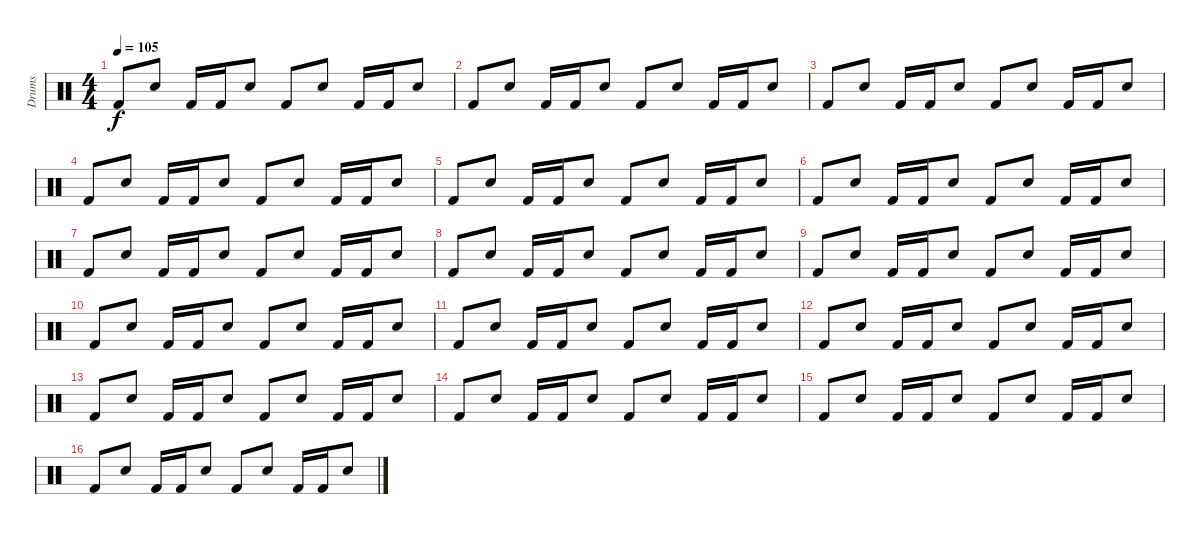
\track ("Drums" "Drums") {instrument percussion}
\staff {score}
\articulation defaults
\ts (4 4)
\tempo 105
\clef neutral
\ks c "Kick (hit) 2".8{dy f} "Snare (hit) 2".8 "Kick (hit) 2".16 "Kick (hit) 2".16 "Snare (hit) 2".8 "Kick (hit) 2".8 "Snare (hit) 2".8 "Kick (hit) 2".16 "Kick (hit) 2".16 "Snare (hit) 2".8
|
"Kick (hit) 2".8 "Snare (hit) 2".8 "Kick (hit) 2".16 "Kick (hit) 2".16 "Snare (hit) 2".8 "Kick (hit) 2".8 "Snare (hit) 2".8 "Kick (hit) 2".16 "Kick (hit) 2".16 "Snare (hit) 2".8 |
"Kick (hit) 2".8 "Snare (hit) 2".8 "Kick (hit) 2".16 "Kick (hit) 2".16 "Snare (hit) 2".8 "Kick (hit) 2".8 "Snare (hit) 2".8 "Kick (hit) 2".16 "Kick (hit) 2".16 "Snare (hit) 2".8 |
"Kick (hit) 2".8 "Snare (hit) 2".8 "Kick (hit) 2".16 "Kick (hit) 2".16 "Snare (hit) 2".8 "Kick (hit) 2".8 "Snare (hit) 2".8 "Kick (hit) 2".16 "Kick (hit) 2".16 "Snare (hit) 2".8 |
"Kick (hit) 2".8 "Snare (hit) 2".8 "Kick (hit) 2".16 "Kick (hit) 2".16 "Snare (hit) 2".8 "Kick (hit) 2".8 "Snare (hit) 2".8 "Kick (hit) 2".16 "Kick (hit) 2".16 "Snare (hit) 2".8 |
"Kick (hit) 2".8 "Snare (hit) 2".8 "Kick (hit) 2".16 "Kick (hit) 2".16 "Snare (hit) 2".8 "Kick (hit) 2".8 "Snare (hit) 2".8 "Kick (hit) 2".16 "Kick (hit) 2".16 "Snare (hit) 2".8 |
"Kick (hit) 2".8 "Snare (hit) 2".8 "Kick (hit) 2".16 "Kick (hit) 2".16 "Snare (hit) 2".8 "Kick (hit) 2".8 "Snare (hit) 2".8 "Kick (hit) 2".16 "Kick (hit) 2".16 "Snare (hit) 2".8 |
"Kick (hit) 2".8 "Snare (hit) 2".8 "Kick (hit) 2".16 "Kick (hit) 2".16 "Snare (hit) 2".8 "Kick (hit) 2".8 "Snare (hit) 2".8 "Kick (hit) 2".16 "Kick (hit) 2".16 "Snare (hit) 2".8 |
"Kick (hit) 2".8 "Snare (hit) 2".8 "Kick (hit) 2".16 "Kick (hit) 2".16 "Snare (hit) 2".8 "Kick (hit) 2".8 "Snare (hit) 2".8 "Kick (hit) 2".16 "Kick (hit) 2".16 "Snare (hit) 2".8 |
"Kick (hit) 2".8 "Snare (hit) 2".8 "Kick (hit) 2".16 "Kick (hit) 2".16 "Snare (hit) 2".8 "Kick (hit) 2".8 "Snare (hit) 2".8 "Kick (hit) 2".16 "Kick (hit) 2".16 "Snare (hit) 2".8 |
"Kick (hit) 2".8 "Snare (hit) 2".8 "Kick (hit) 2".16 "Kick (hit) 2".16 "Snare (hit) 2".8 "Kick (hit) 2".8 "Snare (hit) 2".8 "Kick (hit) 2".16 "Kick (hit) 2".16 "Snare (hit) 2".8 |
"Kick (hit) 2".8 "Snare (hit) 2".8 "Kick (hit) 2".16 "Kick (hit) 2".16 "Snare (hit) 2".8 "Kick (hit) 2".8 "Snare (hit) 2".8 "Kick (hit) 2".16 "Kick (hit) 2".16 "Snare (hit) 2".8 |
"Kick (hit) 2".8 "Snare (hit) 2".8 "Kick (hit) 2".16 "Kick (hit) 2".16 "Snare (hit) 2".8 "Kick (hit) 2".8 "Snare (hit) 2".8 "Kick (hit) 2".16 "Kick (hit) 2".16 "Snare (hit) 2".8 |
"Kick (hit) 2".8 "Snare (hit) 2".8 "Kick (hit) 2".16 "Kick (hit) 2".16 "Snare (hit) 2".8 "Kick (hit) 2".8 "Snare (hit) 2".8 "Kick (hit) 2".16 "Kick (hit) 2".16 "Snare (hit) 2".8 |
"Kick (hit) 2".8 "Snare (hit) 2".8 "Kick (hit) 2".16 "Kick (hit) 2".16 "Snare (hit) 2".8 "Kick (hit) 2".8 "Snare (hit) 2".8 "Kick (hit) 2".16 "Kick (hit) 2".16 "Snare (hit) 2".8 |
"Kick (hit) 2".8 "Snare (hit) 2".8 "Kick (hit) 2".16 "Kick (hit) 2".16 "Snare (hit) 2".8 "Kick (hit) 2".8 "Snare (hit) 2".8 "Kick (hit) 2".16 "Kick (hit) 2".16 "Snare (hit) 2".8
